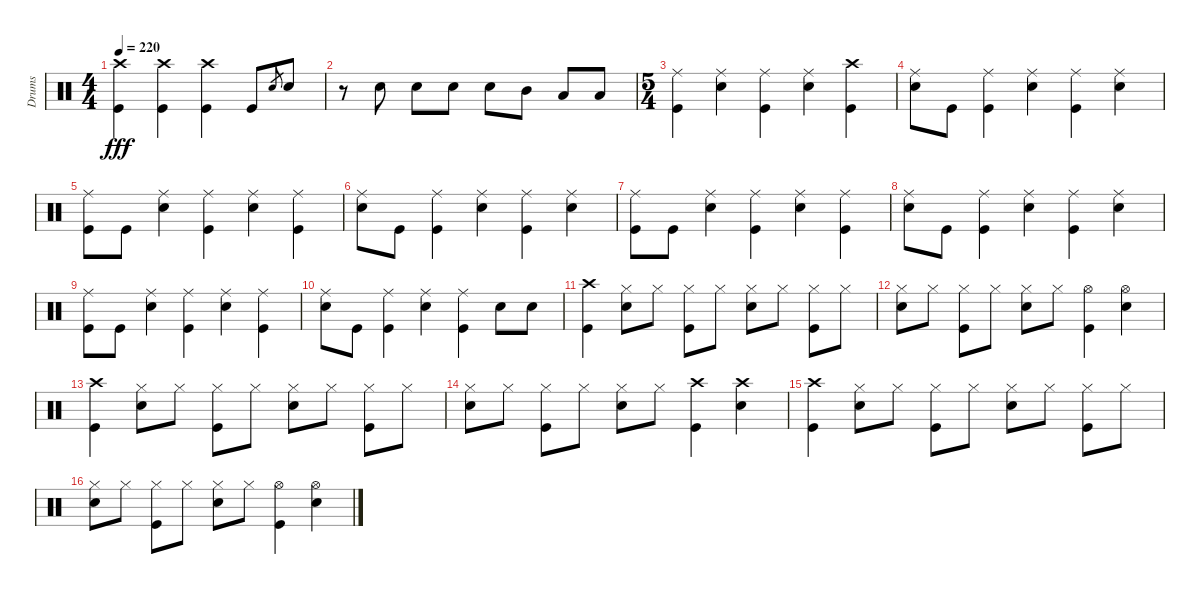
\track ("Drums" "Drums") {instrument percussion}
\staff {score}
\articulation defaults
\ts (4 4)
\tempo 220
\clef neutral
\ks c
("Crash high (hit)" "Kick (hit)").4{dy fff} ("Crash high (hit)" "Kick (hit)").4 ("Crash high (hit)" "Kick (hit)").4 "Kick (hit)".8 "Snare (hit) 2".8{gr} "Snare (hit) 2".8 |
r.8 "Snare (hit) 2".8 "Snare (hit) 2".8 "Snare (hit) 2".8 "Snare (hit) 2".8 "Mid Tom (hit)".8 "Low Tom (hit)".8 "Low Tom (hit)".8 |
\ts (5 4)
("Ride (middle)" "Kick (hit)").4 ("Ride (middle)" "Snare (hit) 2").4 ("Ride (middle)" "Kick (hit)").4 ("Ride (middle)" "Snare (hit) 2").4 ("Crash high (hit)" "Kick (hit)").4 |
("Ride (middle)" "Snare (hit) 2").8 "Kick (hit)".8 ("Ride (middle)" "Kick (hit)").4 ("Ride (middle)" "Snare (hit) 2").4 ("Ride (middle)" "Kick (hit)").4 ("Ride (middle)" "Snare (hit) 2").4 |
("Ride (middle)" "Kick (hit)").8 "Kick (hit)".8 ("Ride (middle)" "Snare (hit) 2").4 ("Ride (middle)" "Kick (hit)").4 ("Ride (middle)" "Snare (hit) 2").4 ("Ride (middle)" "Kick (hit)").4 |
("Ride (middle)" "Snare (hit) 2").8 "Kick (hit)".8 ("Ride (middle)" "Kick (hit)").4 ("Ride (middle)" "Snare (hit) 2").4 ("Ride (middle)" "Kick (hit)").4 ("Ride (middle)" "Snare (hit) 2").4 |
("Ride (middle)" "Kick (hit)").8 "Kick (hit)".8 ("Ride (middle)" "Snare (hit) 2").4 ("Ride (middle)" "Kick (hit)").4 ("Ride (middle)" "Snare (hit) 2").4 ("Ride (middle)" "Kick (hit)").4 |
("Ride (middle)" "Snare (hit) 2").8 "Kick (hit)".8 ("Ride (middle)" "Kick (hit)").4 ("Ride (middle)" "Snare (hit) 2").4 ("Ride (middle)" "Kick (hit)").4 ("Ride (middle)" "Snare (hit) 2").4 |
("Ride (middle)" "Kick (hit)").8 "Kick (hit)".8 ("Ride (middle)" "Snare (hit) 2").4 ("Ride (middle)" "Kick (hit)").4 ("Ride (middle)" "Snare (hit) 2").4 ("Ride (middle)" "Kick (hit)").4 |
("Ride (middle)" "Snare (hit) 2").8 "Kick (hit)".8 ("Ride (middle)" "Kick (hit)").4 ("Ride (middle)" "Snare (hit) 2").4 ("Ride (middle)" "Kick (hit)").4 "Snare (hit) 2".8 "Snare (hit) 2".8 |
("Crash high (hit)" "Kick (hit)").4 ("Hi-Hat (closed)" "Snare (hit) 2").8 "Hi-Hat (closed)".8 ("Hi-Hat (closed)" "Kick (hit)").8 "Hi-Hat (closed)".8 ("Hi-Hat (closed)" "Snare (hit) 2").8 "Hi-Hat (closed)".8 ("Hi-Hat (closed)" "Kick (hit)").8 "Hi-Hat (closed)".8 |
("Hi-Hat (closed)" "Snare (hit) 2").8 "Hi-Hat (closed)".8 ("Hi-Hat (closed)" "Kick (hit)").8 "Hi-Hat (closed)".8 ("Hi-Hat (closed)" "Snare (hit) 2").8 "Hi-Hat (closed)".8 ("Hi-Hat (open)" "Kick (hit)").4 ("Hi-Hat (open)" "Snare (hit) 2").4 |
("Crash high (hit)" "Kick (hit)").4 ("Hi-Hat (closed)" "Snare (hit) 2").8 "Hi-Hat (closed)".8 ("Hi-Hat (closed)" "Kick (hit)").8 "Hi-Hat (closed)".8 ("Hi-Hat (closed)" "Snare (hit) 2").8 "Hi-Hat (closed)".8 ("Hi-Hat (closed)" "Kick (hit)").8 "Hi-Hat (closed)".8 |
("Hi-Hat (closed)" "Snare (hit) 2").8 "Hi-Hat (closed)".8 ("Hi-Hat (closed)" "Kick (hit)").8 "Hi-Hat (closed)".8 ("Hi-Hat (closed)" "Snare (hit) 2").8 "Hi-Hat (closed)".8 ("Crash high (hit)" "Kick (hit)").4 ("Crash high (hit)" "Snare (hit) 2").4 |
("Crash high (hit)" "Kick (hit)").4 ("Hi-Hat (closed)" "Snare (hit) 2").8 "Hi-Hat (closed)".8 ("Hi-Hat (closed)" "Kick (hit)").8 "Hi-Hat (closed)".8 ("Hi-Hat (closed)" "Snare (hit) 2").8 "Hi-Hat (closed)".8 ("Hi-Hat (closed)" "Kick (hit)").8 "Hi-Hat (closed)".8 |
("Hi-Hat (closed)" "Snare (hit) 2").8 "Hi-Hat (closed)".8 ("Hi-Hat (closed)" "Kick (hit)").8 "Hi-Hat (closed)".8 ("Hi-Hat (closed)" "Snare (hit) 2").8 "Hi-Hat (closed)".8 ("Hi-Hat (open)" "Kick (hit)").4 ("Hi-Hat (open)" "Snare (hit) 2").4
